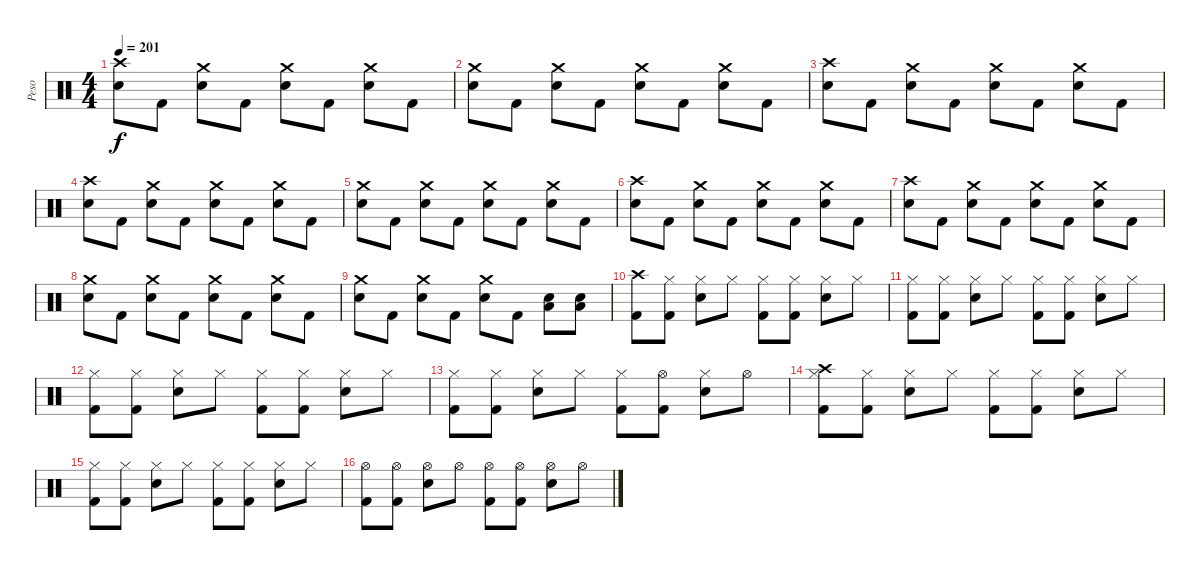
\track ("Peso" "Peso") {instrument percussion}
\staff {score}
\articulation defaults
\ts (4 4)
\tempo 201
\clef neutral
\ks c
("Crash high (hit)" "Snare (hit) 2").8{dy f} "Kick (hit) 2".8 ("Crash medium (hit)" "Snare (hit) 2").8 "Kick (hit) 2".8 ("Crash medium (hit)" "Snare (hit) 2").8 "Kick (hit) 2".8 ("Crash medium (hit)" "Snare (hit) 2").8 "Kick (hit) 2".8 |
("Crash medium (hit)" "Snare (hit) 2").8 "Kick (hit) 2".8 ("Crash medium (hit)" "Snare (hit) 2").8 "Kick (hit) 2".8 ("Crash medium (hit)" "Snare (hit) 2").8 "Kick (hit) 2".8 ("Crash medium (hit)" "Snare (hit) 2").8 "Kick (hit) 2".8 |
("Crash high (hit)" "Snare (hit) 2").8 "Kick (hit) 2".8 ("Crash medium (hit)" "Snare (hit) 2").8 "Kick (hit) 2".8 ("Crash medium (hit)" "Snare (hit) 2").8 "Kick (hit) 2".8 ("Crash medium (hit)" "Snare (hit) 2").8 "Kick (hit) 2".8 |
("Crash high (hit)" "Snare (hit) 2").8 "Kick (hit) 2".8 ("Crash medium (hit)" "Snare (hit) 2").8 "Kick (hit) 2".8 ("Crash medium (hit)" "Snare (hit) 2").8 "Kick (hit) 2".8 ("Crash medium (hit)" "Snare (hit) 2").8 "Kick (hit) 2".8 |
("Crash medium (hit)" "Snare (hit) 2").8 "Kick (hit) 2".8 ("Crash medium (hit)" "Snare (hit) 2").8 "Kick (hit) 2".8 ("Crash medium (hit)" "Snare (hit) 2").8 "Kick (hit) 2".8 ("Crash medium (hit)" "Snare (hit) 2").8 "Kick (hit) 2".8 |
("Crash high (hit)" "Snare (hit) 2").8 "Kick (hit) 2".8 ("Crash medium (hit)" "Snare (hit) 2").8 "Kick (hit) 2".8 ("Crash medium (hit)" "Snare (hit) 2").8 "Kick (hit) 2".8 ("Crash medium (hit)" "Snare (hit) 2").8 "Kick (hit) 2".8 |
("Crash high (hit)" "Snare (hit) 2").8 "Kick (hit) 2".8 ("Crash medium (hit)" "Snare (hit) 2").8 "Kick (hit) 2".8 ("Crash medium (hit)" "Snare (hit) 2").8 "Kick (hit) 2".8 ("Crash medium (hit)" "Snare (hit) 2").8 "Kick (hit) 2".8 |
("Crash medium (hit)" "Snare (hit) 2").8 "Kick (hit) 2".8 ("Crash medium (hit)" "Snare (hit) 2").8 "Kick (hit) 2".8 ("Crash medium (hit)" "Snare (hit) 2").8 "Kick (hit) 2".8 ("Crash medium (hit)" "Snare (hit) 2").8 "Kick (hit) 2".8 |
("Crash medium (hit)" "Snare (hit) 2").8 "Kick (hit) 2".8 ("Crash medium (hit)" "Snare (hit) 2").8 "Kick (hit) 2".8 ("Crash medium (hit)" "Snare (hit) 2").8 "Kick (hit) 2".8 ("Snare (hit) 2" "Low Floor Tom (hit)").8 ("Snare (hit) 2" "Low Floor Tom (hit)").8 |
("Crash high (hit)" "Kick (hit) 2").8 ("Hi-Hat (closed)" "Kick (hit) 2").8 ("Hi-Hat (closed)" "Snare (hit) 2").8 "Hi-Hat (closed)".8 ("Hi-Hat (closed)" "Kick (hit) 2").8 ("Hi-Hat (closed)" "Kick (hit) 2").8 ("Hi-Hat (closed)" "Snare (hit) 2").8 "Hi-Hat (closed)".8 |
("Hi-Hat (closed)" "Kick (hit) 2").8 ("Hi-Hat (closed)" "Kick (hit) 2").8 ("Hi-Hat (closed)" "Snare (hit) 2").8 "Hi-Hat (closed)".8 ("Hi-Hat (closed)" "Kick (hit) 2").8 ("Hi-Hat (closed)" "Kick (hit) 2").8 ("Hi-Hat (closed)" "Snare (hit) 2").8 "Hi-Hat (closed)".8 |
("Hi-Hat (closed)" "Kick (hit) 2").8 ("Hi-Hat (closed)" "Kick (hit) 2").8 ("Hi-Hat (closed)" "Snare (hit) 2").8 "Hi-Hat (closed)".8 ("Hi-Hat (closed)" "Kick (hit) 2").8 ("Hi-Hat (closed)" "Kick (hit) 2").8 ("Hi-Hat (closed)" "Snare (hit) 2").8 "Hi-Hat (closed)".8 |
("Hi-Hat (closed)" "Kick (hit) 2").8 ("Hi-Hat (closed)" "Kick (hit) 2").8 ("Hi-Hat (closed)" "Snare (hit) 2").8 "Hi-Hat (closed)".8 ("Hi-Hat (closed)" "Kick (hit) 2").8 ("Hi-Hat (open)" "Kick (hit) 2").8 ("Hi-Hat (closed)" "Snare (hit) 2").8 "Hi-Hat (open)".8 |
("Crash high (hit)" "Hi-Hat (closed)" "Kick (hit) 2").8 ("Hi-Hat (closed)" "Kick (hit) 2").8 ("Hi-Hat (closed)" "Snare (hit) 2").8 "Hi-Hat (closed)".8 ("Hi-Hat (closed)" "Kick (hit) 2").8 ("Hi-Hat (closed)" "Kick (hit) 2").8 ("Hi-Hat (closed)" "Snare (hit) 2").8 "Hi-Hat (closed)".8 |
("Hi-Hat (closed)" "Kick (hit) 2").8 ("Hi-Hat (closed)" "Kick (hit) 2").8 ("Hi-Hat (closed)" "Snare (hit) 2").8 "Hi-Hat (closed)".8 ("Hi-Hat (closed)" "Kick (hit) 2").8 ("Hi-Hat (closed)" "Kick (hit) 2").8 ("Hi-Hat (closed)" "Snare (hit) 2").8 "Hi-Hat (closed)".8 |
("Hi-Hat (open)" "Kick (hit) 2").8{volume 12} ("Hi-Hat (open)" "Kick (hit) 2").8 ("Hi-Hat (open)" "Snare (hit) 2").8 "Hi-Hat (open)".8{volume 13} ("Hi-Hat (open)" "Kick (hit) 2").8 ("Hi-Hat (open)" "Kick (hit) 2").8 ("Hi-Hat (open)" "Snare (hit) 2").8 "Hi-Hat (open)".8{volume 14}
